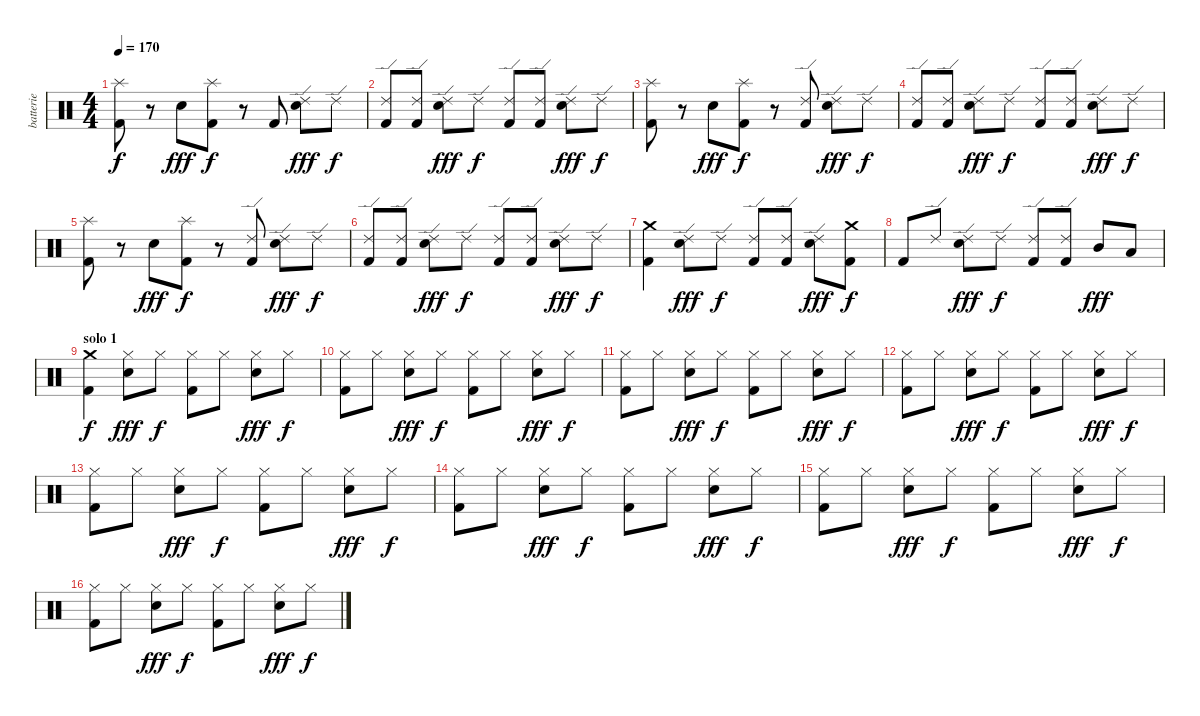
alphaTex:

\track ("batterie" "batterie") {instrument percussion}
\staff {score}
\articulation defaults
\ts (4 4)
\tempo 170
\clef neutral
\ks c
("Splash (hit)" "Kick (hit) 2").8{dy f} r.8 "Electric Snare (hit)".8{dy fff} ("Splash (hit)" "Kick (hit) 2").8{dy f} r.8 "Kick (hit) 2".8 ("Ride (edge) 2" "Electric Snare (hit)").8{dy fff} "Ride (edge) 2".8{dy f} |
("Ride (edge) 2" "Kick (hit) 2").8 ("Ride (edge) 2" "Kick (hit) 2").8 ("Ride (edge) 2" "Electric Snare (hit)").8{dy fff} "Ride (edge) 2".8{dy f} ("Ride (edge) 2" "Kick (hit) 2").8 ("Ride (edge) 2" "Kick (hit) 2").8 ("Ride (edge) 2" "Electric Snare (hit)").8{dy fff} "Ride (edge) 2".8{dy f} |
("Splash (hit)" "Kick (hit) 2").8 r.8 "Electric Snare (hit)".8{dy fff} ("Splash (hit)" "Kick (hit) 2").8{dy f} r.8 ("Ride (edge) 2" "Kick (hit) 2").8 ("Ride (edge) 2" "Electric Snare (hit)").8{dy fff} "Ride (edge) 2".8{dy f} |
("Ride (edge) 2" "Kick (hit) 2").8 ("Ride (edge) 2" "Kick (hit) 2").8 ("Ride (edge) 2" "Electric Snare (hit)").8{dy fff} "Ride (edge) 2".8{dy f} ("Ride (edge) 2" "Kick (hit) 2").8 ("Ride (edge) 2" "Kick (hit) 2").8 ("Ride (edge) 2" "Electric Snare (hit)").8{dy fff} "Ride (edge) 2".8{dy f} |
("Splash (hit)" "Kick (hit) 2").8 r.8 "Electric Snare (hit)".8{dy fff} ("Splash (hit)" "Kick (hit) 2").8{dy f} r.8 ("Ride (edge) 2" "Kick (hit) 2").8 ("Ride (edge) 2" "Electric Snare (hit)").8{dy fff} "Ride (edge) 2".8{dy f} |
("Ride (edge) 2" "Kick (hit) 2").8 ("Ride (edge) 2" "Kick (hit) 2").8 ("Ride (edge) 2" "Electric Snare (hit)").8{dy fff} "Ride (edge) 2".8{dy f} ("Ride (edge) 2" "Kick (hit) 2").8 ("Ride (edge) 2" "Kick (hit) 2").8 ("Ride (edge) 2" "Electric Snare (hit)").8{dy fff} "Ride (edge) 2".8{dy f} |
("Crash medium (hit)" "Kick (hit) 2").4 ("Ride (edge) 2" "Electric Snare (hit)").8{dy fff} "Ride (edge) 2".8{dy f} ("Ride (edge) 2" "Kick (hit) 2").8 ("Ride (edge) 2" "Kick (hit) 2").8 ("Ride (edge) 2" "Electric Snare (hit)").8{dy fff} ("Crash medium (hit)" "Kick (hit) 2").8{dy f} |
"Kick (hit) 2".8 "Ride (edge) 2".8 ("Ride (edge) 2" "Electric Snare (hit)").8{dy fff} "Ride (edge) 2".8{dy f} ("Ride (edge) 2" "Kick (hit) 2").8 ("Ride (edge) 2" "Kick (hit) 2").8 "Mid Tom (hit)".8{dy fff} "Low Tom (hit)".8 |
\section ("" "solo 1")
("Crash medium (hit)" "Kick (hit) 2").4{dy f} ("Hi-Hat (closed)" "Electric Snare (hit)").8{dy fff} "Hi-Hat (closed)".8{dy f} ("Hi-Hat (closed)" "Kick (hit) 2").8 "Hi-Hat (closed)".8 ("Hi-Hat (closed)" "Electric Snare (hit)").8{dy fff} "Hi-Hat (closed)".8{dy f} |
("Hi-Hat (closed)" "Kick (hit) 2").8 "Hi-Hat (closed)".8 ("Hi-Hat (closed)" "Electric Snare (hit)").8{dy fff} "Hi-Hat (closed)".8{dy f} ("Hi-Hat (closed)" "Kick (hit) 2").8 "Hi-Hat (closed)".8 ("Hi-Hat (closed)" "Electric Snare (hit)").8{dy fff} "Hi-Hat (closed)".8{dy f} |
("Hi-Hat (closed)" "Kick (hit) 2").8 "Hi-Hat (closed)".8 ("Hi-Hat (closed)" "Electric Snare (hit)").8{dy fff} "Hi-Hat (closed)".8{dy f} ("Hi-Hat (closed)" "Kick (hit) 2").8 "Hi-Hat (closed)".8 ("Hi-Hat (closed)" "Electric Snare (hit)").8{dy fff} "Hi-Hat (closed)".8{dy f} |
("Hi-Hat (closed)" "Kick (hit) 2").8 "Hi-Hat (closed)".8 ("Hi-Hat (closed)" "Electric Snare (hit)").8{dy fff} "Hi-Hat (closed)".8{dy f} ("Hi-Hat (closed)" "Kick (hit) 2").8 "Hi-Hat (closed)".8 ("Hi-Hat (closed)" "Electric Snare (hit)").8{dy fff} "Hi-Hat (closed)".8{dy f} |
("Hi-Hat (closed)" "Kick (hit) 2").8 "Hi-Hat (closed)".8 ("Hi-Hat (closed)" "Electric Snare (hit)").8{dy fff} "Hi-Hat (closed)".8{dy f} ("Hi-Hat (closed)" "Kick (hit) 2").8 "Hi-Hat (closed)".8 ("Hi-Hat (closed)" "Electric Snare (hit)").8{dy fff} "Hi-Hat (closed)".8{dy f} |
("Hi-Hat (closed)" "Kick (hit) 2").8 "Hi-Hat (closed)".8 ("Hi-Hat (closed)" "Electric Snare (hit)").8{dy fff} "Hi-Hat (closed)".8{dy f} ("Hi-Hat (closed)" "Kick (hit) 2").8 "Hi-Hat (closed)".8 ("Hi-Hat (closed)" "Electric Snare (hit)").8{dy fff} "Hi-Hat (closed)".8{dy f} |
("Hi-Hat (closed)" "Kick (hit) 2").8 "Hi-Hat (closed)".8 ("Hi-Hat (closed)" "Electric Snare (hit)").8{dy fff} "Hi-Hat (closed)".8{dy f} ("Hi-Hat (closed)" "Kick (hit) 2").8 "Hi-Hat (closed)".8 ("Hi-Hat (closed)" "Electric Snare (hit)").8{dy fff} "Hi-Hat (closed)".8{dy f} |
("Hi-Hat (closed)" "Kick (hit) 2").8 "Hi-Hat (closed)".8 ("Hi-Hat (closed)" "Electric Snare (hit)").8{dy fff} "Hi-Hat (closed)".8{dy f} ("Hi-Hat (closed)" "Kick (hit) 2").8 "Hi-Hat (closed)".8 ("Hi-Hat (closed)" "Electric Snare (hit)").8{dy fff} "Hi-Hat (closed)".8{dy f}
